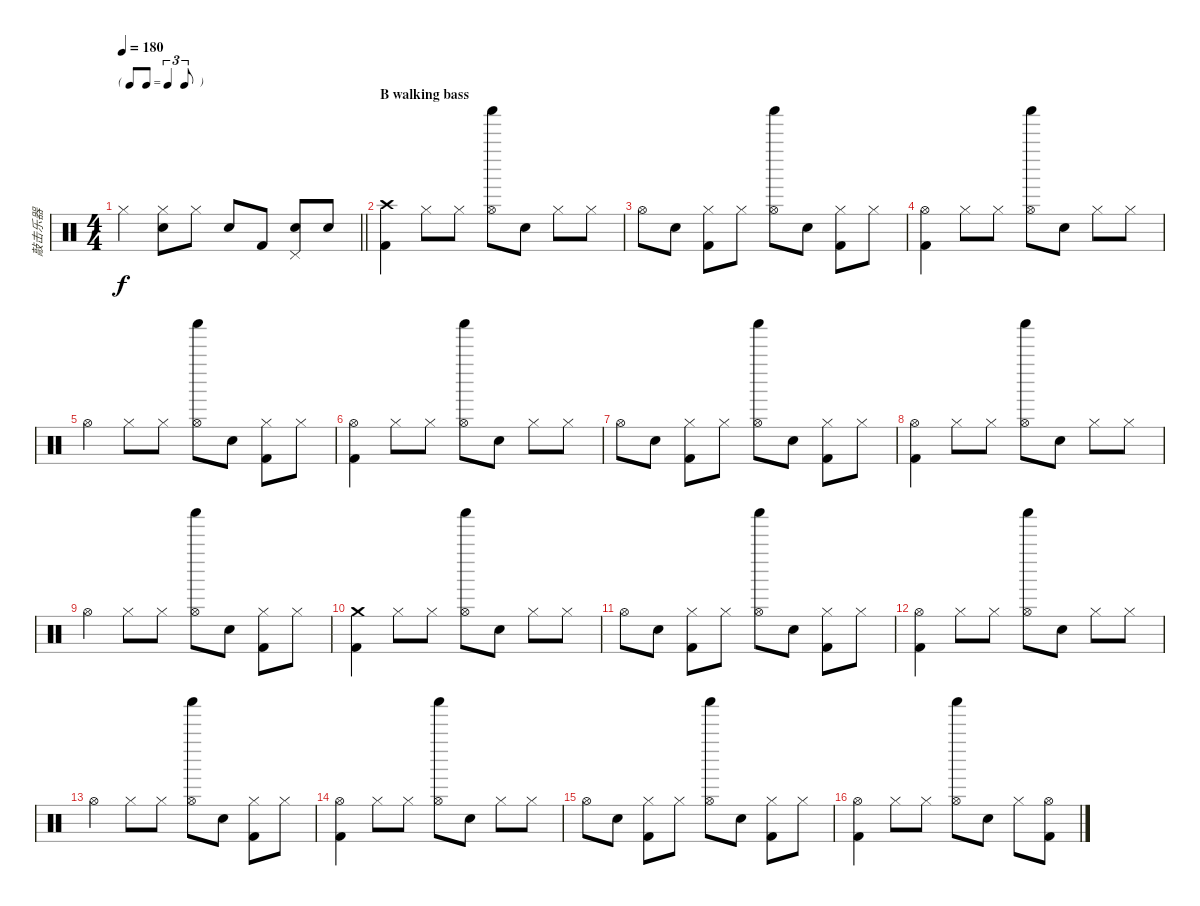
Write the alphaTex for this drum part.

\track ("敲击乐器" "敲击乐器") {instrument percussion}
\staff {score}
\articulation defaults
\ts (4 4)
\tf triplet8th
\tempo 180
\clef neutral
\barLineRight lightlight
\ks c "Hi-Hat (closed)".4{dy f}
("Hi-Hat (closed)" "Hand Clap (hit)").8 "Hi-Hat (closed)".8 "Electric Snare (hit)".8 "Kick (hit) 2".8 ("Pedal Hi-Hat (hit)" "Electric Snare (hit)").8 "Electric Snare (hit)".8 |
\section ("" "B walking bass")
("Crash high (hit)" "Kick (hit) 2").4 "Hi-Hat (closed)".8 "Hi-Hat (closed)".8 ("Hi-Hat (open)" "Shaker (hit)").8 "Electric Snare (hit)".8 "Hi-Hat (closed)".8 "Hi-Hat (closed)".8 |
"Hi-Hat (open)".8 "Electric Snare (hit)".8 ("Hi-Hat (closed)" "Kick (hit) 2").8 "Hi-Hat (closed)".8 ("Hi-Hat (open)" "Shaker (hit)").8 "Electric Snare (hit)".8 ("Hi-Hat (closed)" "Kick (hit) 2").8 "Hi-Hat (closed)".8 |
("Hi-Hat (open)" "Kick (hit) 2").4 "Hi-Hat (closed)".8 "Hi-Hat (closed)".8 ("Hi-Hat (open)" "Shaker (hit)").8 "Electric Snare (hit)".8 "Hi-Hat (closed)".8 "Hi-Hat (closed)".8 |
"Hi-Hat (open)".4 "Hi-Hat (closed)".8 "Hi-Hat (closed)".8 ("Hi-Hat (open)" "Shaker (hit)").8 "Electric Snare (hit)".8 ("Hi-Hat (closed)" "Kick (hit) 2").8 "Hi-Hat (closed)".8 |
("Hi-Hat (open)" "Kick (hit) 2").4 "Hi-Hat (closed)".8 "Hi-Hat (closed)".8 ("Hi-Hat (open)" "Shaker (hit)").8 "Electric Snare (hit)".8 "Hi-Hat (closed)".8 "Hi-Hat (closed)".8 |
"Hi-Hat (open)".8 "Electric Snare (hit)".8 ("Hi-Hat (closed)" "Kick (hit) 2").8 "Hi-Hat (closed)".8 ("Hi-Hat (open)" "Shaker (hit)").8 "Electric Snare (hit)".8 ("Hi-Hat (closed)" "Kick (hit) 2").8 "Hi-Hat (closed)".8 |
("Hi-Hat (open)" "Kick (hit) 2").4 "Hi-Hat (closed)".8 "Hi-Hat (closed)".8 ("Hi-Hat (open)" "Shaker (hit)").8 "Electric Snare (hit)".8 "Hi-Hat (closed)".8 "Hi-Hat (closed)".8 |
"Hi-Hat (open)".4 "Hi-Hat (closed)".8 "Hi-Hat (closed)".8 ("Hi-Hat (open)" "Shaker (hit)").8 "Electric Snare (hit)".8 ("Hi-Hat (closed)" "Kick (hit) 2").8 "Hi-Hat (closed)".8 |
("Crash medium (hit)" "Kick (hit) 2").4 "Hi-Hat (closed)".8 "Hi-Hat (closed)".8 ("Hi-Hat (open)" "Shaker (hit)").8 "Electric Snare (hit)".8 "Hi-Hat (closed)".8 "Hi-Hat (closed)".8 |
"Hi-Hat (open)".8 "Electric Snare (hit)".8 ("Hi-Hat (closed)" "Kick (hit) 2").8 "Hi-Hat (closed)".8 ("Hi-Hat (open)" "Shaker (hit)").8 "Electric Snare (hit)".8 ("Hi-Hat (closed)" "Kick (hit) 2").8 "Hi-Hat (closed)".8 |
("Hi-Hat (open)" "Kick (hit) 2").4 "Hi-Hat (closed)".8 "Hi-Hat (closed)".8 ("Hi-Hat (open)" "Shaker (hit)").8 "Electric Snare (hit)".8 "Hi-Hat (closed)".8 "Hi-Hat (closed)".8 |
"Hi-Hat (open)".4 "Hi-Hat (closed)".8 "Hi-Hat (closed)".8 ("Hi-Hat (open)" "Shaker (hit)").8 "Electric Snare (hit)".8 ("Hi-Hat (closed)" "Kick (hit) 2").8 "Hi-Hat (closed)".8 |
("Hi-Hat (open)" "Kick (hit) 2").4 "Hi-Hat (closed)".8 "Hi-Hat (closed)".8 ("Hi-Hat (open)" "Shaker (hit)").8 "Electric Snare (hit)".8 "Hi-Hat (closed)".8 "Hi-Hat (closed)".8 |
"Hi-Hat (open)".8 "Electric Snare (hit)".8 ("Hi-Hat (closed)" "Kick (hit) 2").8 "Hi-Hat (closed)".8 ("Hi-Hat (open)" "Shaker (hit)").8 "Electric Snare (hit)".8 ("Hi-Hat (closed)" "Kick (hit) 2").8 "Hi-Hat (closed)".8 |
("Hi-Hat (open)" "Kick (hit) 2").4 "Hi-Hat (closed)".8 "Hi-Hat (closed)".8 ("Hi-Hat (open)" "Shaker (hit)").8 "Electric Snare (hit)".8 "Hi-Hat (closed)".8 ("Hi-Hat (open)" "Kick (hit) 2").8
